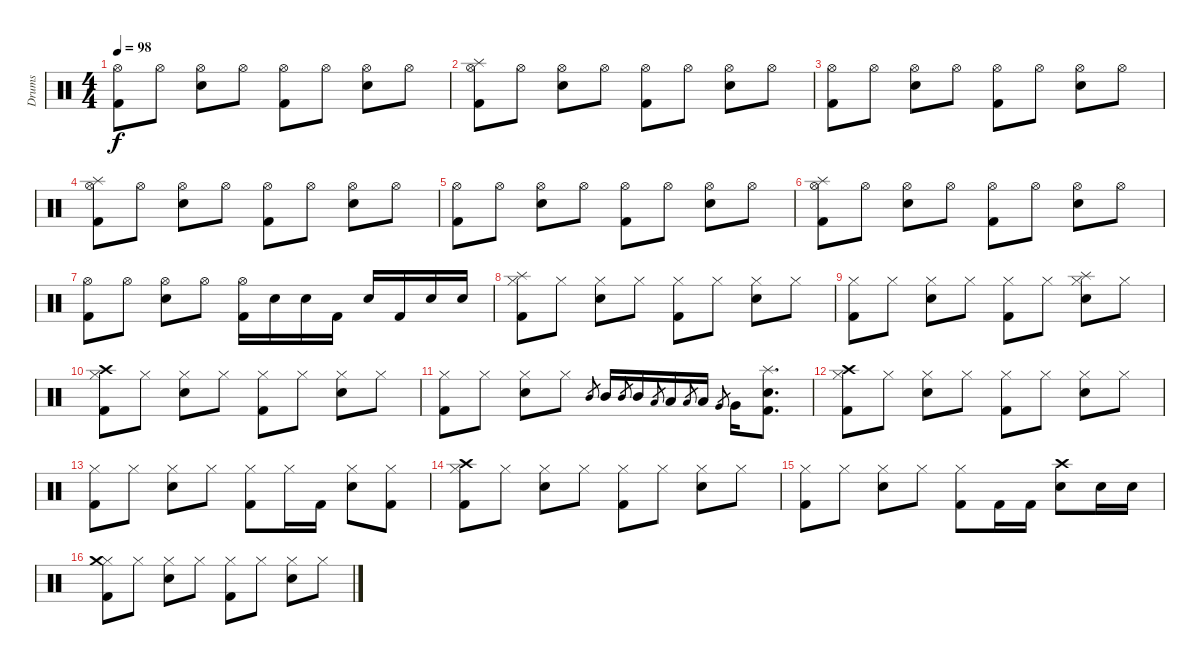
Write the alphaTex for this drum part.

\track ("Drums" "Drums") {instrument percussion}
\staff {score}
\articulation defaults
\ts (4 4)
\tempo 98
\clef neutral
\ks c
("Hi-Hat (open)" "Kick (hit) 2").8{dy f} "Hi-Hat (open)".8 ("Hi-Hat (open)" "Snare (hit) 2").8 "Hi-Hat (open)".8 ("Hi-Hat (open)" "Kick (hit) 2").8 "Hi-Hat (open)".8 ("Hi-Hat (open)" "Snare (hit) 2").8 "Hi-Hat (open)".8 |
("Hi-Hat (open)" "Kick (hit) 2" "Splash (hit)").8 "Hi-Hat (open)".8 ("Hi-Hat (open)" "Snare (hit) 2").8 "Hi-Hat (open)".8 ("Hi-Hat (open)" "Kick (hit) 2").8 "Hi-Hat (open)".8 ("Hi-Hat (open)" "Snare (hit) 2").8 "Hi-Hat (open)".8 |
("Hi-Hat (open)" "Kick (hit) 2").8 "Hi-Hat (open)".8 ("Hi-Hat (open)" "Snare (hit) 2").8 "Hi-Hat (open)".8 ("Hi-Hat (open)" "Kick (hit) 2").8 "Hi-Hat (open)".8 ("Hi-Hat (open)" "Snare (hit) 2").8 "Hi-Hat (open)".8 |
("Hi-Hat (open)" "Kick (hit) 2" "Splash (hit)").8 "Hi-Hat (open)".8 ("Hi-Hat (open)" "Snare (hit) 2").8 "Hi-Hat (open)".8 ("Hi-Hat (open)" "Kick (hit) 2").8 "Hi-Hat (open)".8 ("Hi-Hat (open)" "Snare (hit) 2").8 "Hi-Hat (open)".8 |
("Hi-Hat (open)" "Kick (hit) 2").8 "Hi-Hat (open)".8 ("Hi-Hat (open)" "Snare (hit) 2").8 "Hi-Hat (open)".8 ("Hi-Hat (open)" "Kick (hit) 2").8 "Hi-Hat (open)".8 ("Hi-Hat (open)" "Snare (hit) 2").8 "Hi-Hat (open)".8 |
("Hi-Hat (open)" "Kick (hit) 2" "Splash (hit)").8 "Hi-Hat (open)".8 ("Hi-Hat (open)" "Snare (hit) 2").8 "Hi-Hat (open)".8 ("Hi-Hat (open)" "Kick (hit) 2").8 "Hi-Hat (open)".8 ("Hi-Hat (open)" "Snare (hit) 2").8 "Hi-Hat (open)".8 |
("Hi-Hat (open)" "Kick (hit) 2").8 "Hi-Hat (open)".8 ("Hi-Hat (open)" "Snare (hit) 2").8 "Hi-Hat (open)".8 ("Hi-Hat (open)" "Kick (hit) 2").16 "Snare (hit) 2".16 "Snare (hit) 2".16 "Kick (hit) 2".16 "Snare (hit) 2".16 "Kick (hit) 2".16 "Snare (hit) 2".16 "Snare (hit) 2".16 |
("Hi-Hat (closed)" "Kick (hit) 2" "Splash (hit)").8 "Hi-Hat (closed)".8 ("Hi-Hat (closed)" "Snare (hit) 2").8 "Hi-Hat (closed)".8 ("Hi-Hat (closed)" "Kick (hit) 2").8 "Hi-Hat (closed)".8 ("Hi-Hat (closed)" "Snare (hit) 2").8 "Hi-Hat (closed)".8 |
("Hi-Hat (closed)" "Kick (hit) 2").8 "Hi-Hat (closed)".8 ("Hi-Hat (closed)" "Snare (hit) 2").8 "Hi-Hat (closed)".8 ("Hi-Hat (closed)" "Kick (hit) 2").8 "Hi-Hat (closed)".8 ("Hi-Hat (closed)" "Snare (hit) 2" "Splash (hit)").8 "Hi-Hat (closed)".8 |
("Hi-Hat (closed)" "Kick (hit) 2" "Crash high (hit)").8 "Hi-Hat (closed)".8 ("Hi-Hat (closed)" "Snare (hit) 2").8 "Hi-Hat (closed)".8 ("Hi-Hat (closed)" "Kick (hit) 2").8 "Hi-Hat (closed)".8 ("Hi-Hat (closed)" "Snare (hit) 2").8 "Hi-Hat (closed)".8 |
("Hi-Hat (closed)" "Kick (hit) 2").8 "Hi-Hat (closed)".8 ("Hi-Hat (closed)" "Snare (hit) 2").8 "Hi-Hat (closed)".8 "Mid Tom (hit)".8{gr} "Mid Tom (hit)".16 "Mid Tom (hit)".8{gr} "Mid Tom (hit)".16 "Low Tom (hit)".8{gr} "Low Tom (hit)".16 "Low Tom (hit)".8{gr} "Low Tom (hit)".16 "Very Low Tom (hit)".8{gr} "Very Low Tom (hit)".16 ("Snare (hit) 2" "Splash (hit)" "Kick (hit) 2").8{d} |
("Hi-Hat (closed)" "Kick (hit) 2" "Crash high (hit)").8 "Hi-Hat (closed)".8 ("Hi-Hat (closed)" "Snare (hit) 2").8 "Hi-Hat (closed)".8 ("Hi-Hat (closed)" "Kick (hit) 2").8 "Hi-Hat (closed)".8 ("Hi-Hat (closed)" "Snare (hit) 2").8 "Hi-Hat (closed)".8 |
("Hi-Hat (closed)" "Kick (hit) 2").8 "Hi-Hat (closed)".8 ("Hi-Hat (closed)" "Snare (hit) 2").8 "Hi-Hat (closed)".8 ("Hi-Hat (closed)" "Kick (hit) 2").8 "Hi-Hat (closed)".16 "Kick (hit) 2".16 ("Hi-Hat (closed)" "Snare (hit) 2").8 ("Hi-Hat (closed)" "Kick (hit) 2").8 |
("Hi-Hat (closed)" "Kick (hit) 2" "Crash high (hit)").8 "Hi-Hat (closed)".8 ("Hi-Hat (closed)" "Snare (hit) 2").8 "Hi-Hat (closed)".8 ("Hi-Hat (closed)" "Kick (hit) 2").8 "Hi-Hat (closed)".8 ("Hi-Hat (closed)" "Snare (hit) 2").8 "Hi-Hat (closed)".8 |
("Hi-Hat (closed)" "Kick (hit) 2").8 "Hi-Hat (closed)".8 ("Hi-Hat (closed)" "Snare (hit) 2").8 "Hi-Hat (closed)".8 ("Hi-Hat (closed)" "Kick (hit) 2").8 "Kick (hit) 2".16 "Kick (hit) 2".16 ("Snare (hit) 2" "Crash high (hit)").8 "Snare (hit) 2".16 "Snare (hit) 2".16 |
("Hi-Hat (closed)" "Kick (hit) 2" "Crash medium (hit)").8 "Hi-Hat (closed)".8 ("Hi-Hat (closed)" "Snare (hit) 2").8 "Hi-Hat (closed)".8 ("Hi-Hat (closed)" "Kick (hit) 2").8 "Hi-Hat (closed)".8 ("Hi-Hat (closed)" "Snare (hit) 2").8 "Hi-Hat (closed)".8
